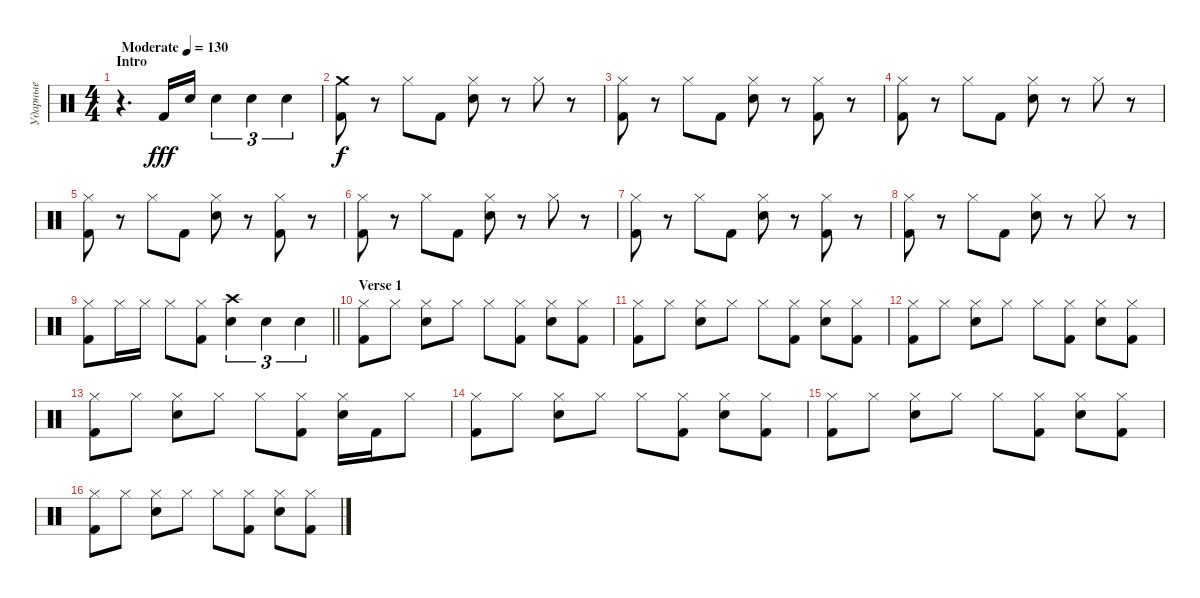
\track ("Ударные" "Ударные") {instrument percussion}
\staff {score}
\articulation defaults
\ts (4 4)
\section ("" "Intro")
\tempo (130 "Moderate")
\clef neutral
\ks c
r.4{d dy fff} "Kick (hit) 2".16 "Snare (hit) 2".16 "Snare (hit) 2".4{tu (3 2)} "Snare (hit) 2".4{tu (3 2)} "Snare (hit) 2".4{tu (3 2)} |
("Crash medium (hit)" "Kick (hit) 2").8{dy f} r.8 "Hi-Hat (closed)".8 "Kick (hit) 2".8 ("Hi-Hat (closed)" "Snare (hit) 2").8 r.8 "Hi-Hat (closed)".8 r.8 |
("Hi-Hat (closed)" "Kick (hit) 2").8 r.8 "Hi-Hat (closed)".8 "Kick (hit) 2".8 ("Hi-Hat (closed)" "Snare (hit) 2").8 r.8 ("Hi-Hat (closed)" "Kick (hit) 2").8 r.8 |
("Hi-Hat (closed)" "Kick (hit) 2").8 r.8 "Hi-Hat (closed)".8 "Kick (hit) 2".8 ("Hi-Hat (closed)" "Snare (hit) 2").8 r.8 "Hi-Hat (closed)".8 r.8 |
("Hi-Hat (closed)" "Kick (hit) 2").8 r.8 "Hi-Hat (closed)".8 "Kick (hit) 2".8 ("Hi-Hat (closed)" "Snare (hit) 2").8 r.8 ("Hi-Hat (closed)" "Kick (hit) 2").8 r.8 |
("Hi-Hat (closed)" "Kick (hit) 2").8 r.8 "Hi-Hat (closed)".8 "Kick (hit) 2".8 ("Hi-Hat (closed)" "Snare (hit) 2").8 r.8 "Hi-Hat (closed)".8 r.8 |
("Hi-Hat (closed)" "Kick (hit) 2").8 r.8 "Hi-Hat (closed)".8 "Kick (hit) 2".8 ("Hi-Hat (closed)" "Snare (hit) 2").8 r.8 ("Hi-Hat (closed)" "Kick (hit) 2").8 r.8 |
("Hi-Hat (closed)" "Kick (hit) 2").8 r.8 "Hi-Hat (closed)".8 "Kick (hit) 2".8 ("Hi-Hat (closed)" "Snare (hit) 2").8 r.8 "Hi-Hat (closed)".8 r.8 |
\barLineRight lightlight
("Hi-Hat (closed)" "Kick (hit) 2").8 "Hi-Hat (closed)".16 "Hi-Hat (closed)".16 "Hi-Hat (closed)".8 ("Hi-Hat (closed)" "Kick (hit) 2").8 ("Crash high (hit)" "Snare (hit) 2").4{tu (3 2)} "Snare (hit) 2".4{tu (3 2)} "Snare (hit) 2".4{tu (3 2)} |
\section ("" "Verse 1")
("Hi-Hat (closed)" "Kick (hit) 2").8 "Hi-Hat (closed)".8 ("Hi-Hat (closed)" "Snare (hit) 2").8 "Hi-Hat (closed)".8 "Hi-Hat (closed)".8 ("Hi-Hat (closed)" "Kick (hit) 2").8 ("Hi-Hat (closed)" "Snare (hit) 2").8 ("Hi-Hat (closed)" "Kick (hit) 2").8 |
("Hi-Hat (closed)" "Kick (hit) 2").8 "Hi-Hat (closed)".8 ("Hi-Hat (closed)" "Snare (hit) 2").8 "Hi-Hat (closed)".8 "Hi-Hat (closed)".8 ("Hi-Hat (closed)" "Kick (hit) 2").8 ("Hi-Hat (closed)" "Snare (hit) 2").8 ("Hi-Hat (closed)" "Kick (hit) 2").8 |
("Hi-Hat (closed)" "Kick (hit) 2").8 "Hi-Hat (closed)".8 ("Hi-Hat (closed)" "Snare (hit) 2").8 "Hi-Hat (closed)".8 "Hi-Hat (closed)".8 ("Hi-Hat (closed)" "Kick (hit) 2").8 ("Hi-Hat (closed)" "Snare (hit) 2").8 ("Hi-Hat (closed)" "Kick (hit) 2").8 |
("Hi-Hat (closed)" "Kick (hit) 2").8 "Hi-Hat (closed)".8 ("Hi-Hat (closed)" "Snare (hit) 2").8 "Hi-Hat (closed)".8 "Hi-Hat (closed)".8 ("Hi-Hat (closed)" "Kick (hit) 2").8 ("Hi-Hat (closed)" "Snare (hit) 2").16 "Kick (hit) 2".16 "Hi-Hat (closed)".8 |
("Hi-Hat (closed)" "Kick (hit) 2").8 "Hi-Hat (closed)".8 ("Hi-Hat (closed)" "Snare (hit) 2").8 "Hi-Hat (closed)".8 "Hi-Hat (closed)".8 ("Hi-Hat (closed)" "Kick (hit) 2").8 ("Hi-Hat (closed)" "Snare (hit) 2").8 ("Hi-Hat (closed)" "Kick (hit) 2").8 |
("Hi-Hat (closed)" "Kick (hit) 2").8 "Hi-Hat (closed)".8 ("Hi-Hat (closed)" "Snare (hit) 2").8 "Hi-Hat (closed)".8 "Hi-Hat (closed)".8 ("Hi-Hat (closed)" "Kick (hit) 2").8 ("Hi-Hat (closed)" "Snare (hit) 2").8 ("Hi-Hat (closed)" "Kick (hit) 2").8 |
("Hi-Hat (closed)" "Kick (hit) 2").8 "Hi-Hat (closed)".8 ("Hi-Hat (closed)" "Snare (hit) 2").8 "Hi-Hat (closed)".8 "Hi-Hat (closed)".8 ("Hi-Hat (closed)" "Kick (hit) 2").8 ("Hi-Hat (closed)" "Snare (hit) 2").8 ("Hi-Hat (closed)" "Kick (hit) 2").8
